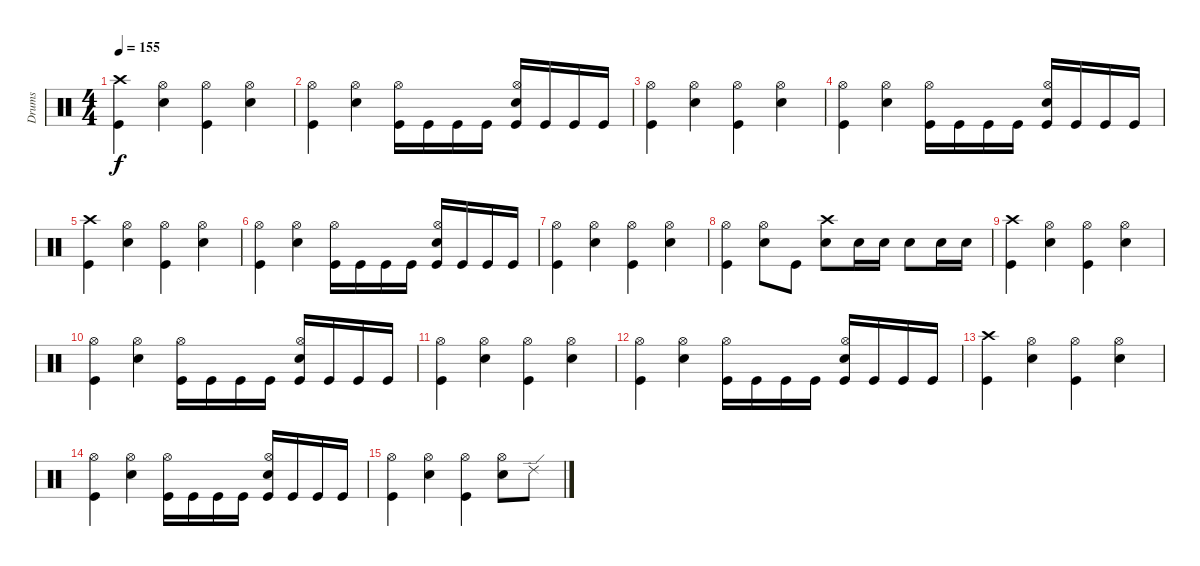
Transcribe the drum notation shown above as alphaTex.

\track ("Drums" "Drums") {instrument percussion}
\staff {score}
\articulation defaults
\ts (4 4)
\tempo 155
\clef neutral
\ks c
("Crash high (hit)" "Kick (hit)").4{dy f} ("Hi-Hat (open)" "Snare (hit) 2").4 ("Hi-Hat (open)" "Kick (hit)").4 ("Hi-Hat (open)" "Snare (hit) 2").4 |
("Hi-Hat (open)" "Kick (hit)").4 ("Hi-Hat (open)" "Snare (hit) 2").4 ("Hi-Hat (open)" "Kick (hit)").16 "Kick (hit)".16 "Kick (hit)".16 "Kick (hit)".16 ("Hi-Hat (open)" "Snare (hit) 2" "Kick (hit)").16 "Kick (hit)".16 "Kick (hit)".16 "Kick (hit)".16 |
("Hi-Hat (open)" "Kick (hit)").4 ("Hi-Hat (open)" "Snare (hit) 2").4 ("Hi-Hat (open)" "Kick (hit)").4 ("Hi-Hat (open)" "Snare (hit) 2").4 |
("Hi-Hat (open)" "Kick (hit)").4 ("Hi-Hat (open)" "Snare (hit) 2").4 ("Hi-Hat (open)" "Kick (hit)").16 "Kick (hit)".16 "Kick (hit)".16 "Kick (hit)".16 ("Hi-Hat (open)" "Snare (hit) 2" "Kick (hit)").16 "Kick (hit)".16 "Kick (hit)".16 "Kick (hit)".16 |
("Crash high (hit)" "Kick (hit)").4 ("Hi-Hat (open)" "Snare (hit) 2").4 ("Hi-Hat (open)" "Kick (hit)").4 ("Hi-Hat (open)" "Snare (hit) 2").4 |
("Hi-Hat (open)" "Kick (hit)").4 ("Hi-Hat (open)" "Snare (hit) 2").4 ("Hi-Hat (open)" "Kick (hit)").16 "Kick (hit)".16 "Kick (hit)".16 "Kick (hit)".16 ("Hi-Hat (open)" "Snare (hit) 2" "Kick (hit)").16 "Kick (hit)".16 "Kick (hit)".16 "Kick (hit)".16 |
("Hi-Hat (open)" "Kick (hit)").4 ("Hi-Hat (open)" "Snare (hit) 2").4 ("Hi-Hat (open)" "Kick (hit)").4 ("Hi-Hat (open)" "Snare (hit) 2").4 |
("Hi-Hat (open)" "Kick (hit)").4 ("Hi-Hat (open)" "Snare (hit) 2").8 "Kick (hit)".8 ("Crash high (hit)" "Snare (hit) 2").8 "Snare (hit) 2".16 "Snare (hit) 2".16 "Snare (hit) 2".8 "Snare (hit) 2".16 "Snare (hit) 2".16 |
("Crash high (hit)" "Kick (hit)").4 ("Hi-Hat (open)" "Snare (hit) 2").4 ("Hi-Hat (open)" "Kick (hit)").4 ("Hi-Hat (open)" "Snare (hit) 2").4 |
("Hi-Hat (open)" "Kick (hit)").4 ("Hi-Hat (open)" "Snare (hit) 2").4 ("Hi-Hat (open)" "Kick (hit)").16 "Kick (hit)".16 "Kick (hit)".16 "Kick (hit)".16 ("Hi-Hat (open)" "Snare (hit) 2" "Kick (hit)").16 "Kick (hit)".16 "Kick (hit)".16 "Kick (hit)".16 |
("Hi-Hat (open)" "Kick (hit)").4 ("Hi-Hat (open)" "Snare (hit) 2").4 ("Hi-Hat (open)" "Kick (hit)").4 ("Hi-Hat (open)" "Snare (hit) 2").4 |
("Hi-Hat (open)" "Kick (hit)").4 ("Hi-Hat (open)" "Snare (hit) 2").4 ("Hi-Hat (open)" "Kick (hit)").16 "Kick (hit)".16 "Kick (hit)".16 "Kick (hit)".16 ("Hi-Hat (open)" "Snare (hit) 2" "Kick (hit)").16 "Kick (hit)".16 "Kick (hit)".16 "Kick (hit)".16 |
("Crash high (hit)" "Kick (hit)").4 ("Hi-Hat (open)" "Snare (hit) 2").4 ("Hi-Hat (open)" "Kick (hit)").4 ("Hi-Hat (open)" "Snare (hit) 2").4 |
("Hi-Hat (open)" "Kick (hit)").4 ("Hi-Hat (open)" "Snare (hit) 2").4 ("Hi-Hat (open)" "Kick (hit)").16 "Kick (hit)".16 "Kick (hit)".16 "Kick (hit)".16 ("Hi-Hat (open)" "Snare (hit) 2" "Kick (hit)").16 "Kick (hit)".16 "Kick (hit)".16 "Kick (hit)".16 |
("Hi-Hat (open)" "Kick (hit)").4 ("Hi-Hat (open)" "Snare (hit) 2").4 ("Hi-Hat (open)" "Kick (hit)").4 ("Hi-Hat (open)" "Snare (hit) 2").8 "Ride (edge) 2".8
